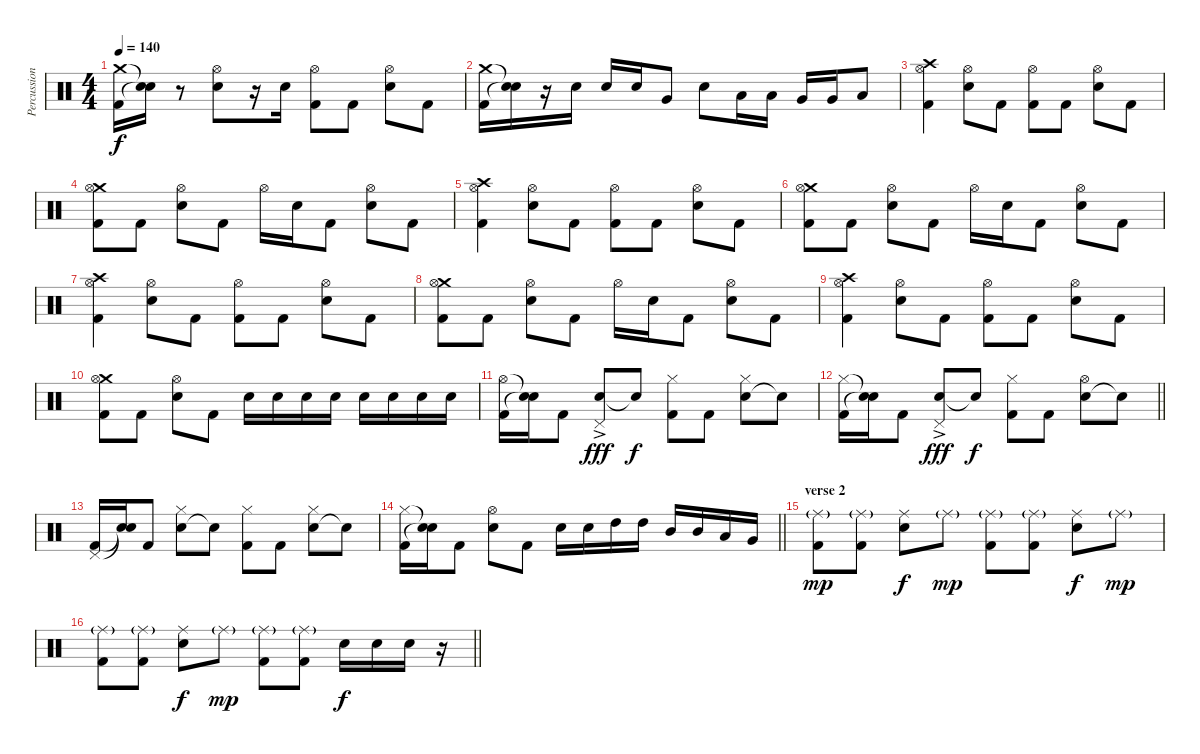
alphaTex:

\track ("Percussion" "Percussion") {instrument percussion}
\staff {score}
\articulation defaults
\ts (4 4)
\tempo 140
\clef neutral
\ks c
("Crash medium (hit)" "Kick (hit) 2").16{dy f} ("Snare (hit)"{t} "Snare (hit)"{t}).16 r.8 ("Electric Snare (hit)" "Hi-Hat (open)").8 r.16 "Electric Snare (hit)".16 ("Kick (hit) 2" "Hi-Hat (open)").8 "Kick (hit) 2".8 ("Electric Snare (hit)" "Hi-Hat (open)").8 "Kick (hit) 2".8 |
("Crash medium (hit)" "Kick (hit) 2").16 ("Snare (hit)"{t} "Snare (hit)"{t}).16 r.16 "Electric Snare (hit)".16 "Electric Snare (hit)".16 "Electric Snare (hit)".16 "Very Low Tom (hit)".8 "Electric Snare (hit)".8 "Low Tom (hit)".16 "Low Tom (hit)".16 "Very Low Tom (hit)".16 "Very Low Tom (hit)".16 "Low Floor Tom (hit)".8 |
("Crash high (hit)" "Kick (hit) 2" "Hi-Hat (open)").4 ("Electric Snare (hit)" "Hi-Hat (open)").8 "Kick (hit) 2".8 ("Kick (hit) 2" "Hi-Hat (open)").8 "Kick (hit) 2".8 ("Electric Snare (hit)" "Hi-Hat (open)").8 "Kick (hit) 2".8 |
("Crash medium (hit)" "Kick (hit) 2" "Hi-Hat (open)").8 "Kick (hit) 2".8 ("Electric Snare (hit)" "Hi-Hat (open)").8 "Kick (hit) 2".8 "Hi-Hat (open)".16 "Electric Snare (hit)".16 "Kick (hit) 2".8 ("Electric Snare (hit)" "Hi-Hat (open)").8 "Kick (hit) 2".8 |
("Crash high (hit)" "Kick (hit) 2" "Hi-Hat (open)").4 ("Electric Snare (hit)" "Hi-Hat (open)").8 "Kick (hit) 2".8 ("Kick (hit) 2" "Hi-Hat (open)").8 "Kick (hit) 2".8 ("Electric Snare (hit)" "Hi-Hat (open)").8 "Kick (hit) 2".8 |
("Crash medium (hit)" "Kick (hit) 2" "Hi-Hat (open)").8 "Kick (hit) 2".8 ("Electric Snare (hit)" "Hi-Hat (open)").8 "Kick (hit) 2".8 "Hi-Hat (open)".16 "Electric Snare (hit)".16 "Kick (hit) 2".8 ("Electric Snare (hit)" "Hi-Hat (open)").8 "Kick (hit) 2".8 |
("Crash high (hit)" "Kick (hit) 2" "Hi-Hat (open)").4 ("Electric Snare (hit)" "Hi-Hat (open)").8 "Kick (hit) 2".8 ("Kick (hit) 2" "Hi-Hat (open)").8 "Kick (hit) 2".8 ("Electric Snare (hit)" "Hi-Hat (open)").8 "Kick (hit) 2".8 |
("Crash medium (hit)" "Kick (hit) 2" "Hi-Hat (open)").8 "Kick (hit) 2".8 ("Electric Snare (hit)" "Hi-Hat (open)").8 "Kick (hit) 2".8 "Hi-Hat (open)".16 "Electric Snare (hit)".16 "Kick (hit) 2".8 ("Electric Snare (hit)" "Hi-Hat (open)").8 "Kick (hit) 2".8 |
("Crash high (hit)" "Kick (hit) 2" "Hi-Hat (open)").4 ("Electric Snare (hit)" "Hi-Hat (open)").8 "Kick (hit) 2".8 ("Kick (hit) 2" "Hi-Hat (open)").8 "Kick (hit) 2".8 ("Electric Snare (hit)" "Hi-Hat (open)").8 "Kick (hit) 2".8 |
("Crash medium (hit)" "Kick (hit) 2" "Hi-Hat (open)").8 "Kick (hit) 2".8 ("Electric Snare (hit)" "Hi-Hat (open)").8 "Kick (hit) 2".8 "Electric Snare (hit)".16 "Electric Snare (hit)".16 "Electric Snare (hit)".16 "Electric Snare (hit)".16 "Electric Snare (hit)".16 "Electric Snare (hit)".16 "Electric Snare (hit)".16 "Electric Snare (hit)".16 |
("Kick (hit) 2" "Hi-Hat (open)").16 ("Snare (hit)"{t} "Snare (hit)"{t}).16 "Kick (hit) 2".8 ("Electric Snare (hit)" "Pedal Hi-Hat (hit)"{ac}).8{dy fff} "Snare (hit)"{t}.8{dy f} ("Kick (hit) 2" "Hi-Hat (closed)").8 "Kick (hit) 2".8 ("Electric Snare (hit)" "Hi-Hat (closed)").8 "Snare (hit)"{t}.8 |
\barLineRight lightlight
("Kick (hit) 2" "Hi-Hat (closed)").16 ("Snare (hit)"{t} "Snare (hit)"{t}).16 "Kick (hit) 2".8 ("Electric Snare (hit)" "Pedal Hi-Hat (hit)"{ac}).8{dy fff} "Snare (hit)"{t}.8{dy f} ("Kick (hit) 2" "Hi-Hat (closed)").8 "Kick (hit) 2".8 ("Electric Snare (hit)" "Hi-Hat (open)").8 "Snare (hit)"{t}.8 |
("Kick (hit) 2" "Pedal Hi-Hat (hit)").16 ("Snare (hit)"{t} "Snare (hit)"{t}).16 "Kick (hit) 2".8 ("Electric Snare (hit)" "Hi-Hat (closed)").8 "Snare (hit)"{t}.8 ("Kick (hit) 2" "Hi-Hat (closed)").8 "Kick (hit) 2".8 ("Electric Snare (hit)" "Hi-Hat (closed)").8 "Snare (hit)"{t}.8 |
\barLineRight lightlight
("Kick (hit) 2" "Hi-Hat (closed)").16 ("Snare (hit)"{t} "Snare (hit)"{t}).16 "Kick (hit) 2".8 ("Electric Snare (hit)" "Hi-Hat (open)").8 "Kick (hit) 2".8 "Electric Snare (hit)".16 "Electric Snare (hit)".16 "High Tom (hit)".16 "High Tom (hit)".16 "Mid Tom (hit)".16 "Mid Tom (hit)".16 "Low Tom (hit)".16 "Very Low Tom (hit)".16 |
\section ("" "verse 2")
("Kick (hit) 2" "Ride (middle)"{g}).8{dy mp} ("Kick (hit) 2" "Ride (middle)"{g}).8 ("Electric Snare (hit)" "Ride (middle)").8{dy f} "Ride (middle)"{g}.8{dy mp} ("Kick (hit) 2" "Ride (middle)"{g}).8 ("Kick (hit) 2" "Ride (middle)"{g}).8 ("Electric Snare (hit)" "Ride (middle)").8{dy f} "Ride (middle)"{g}.8{dy mp} |
\barLineRight lightlight
("Kick (hit) 2" "Ride (middle)"{g}).8 ("Kick (hit) 2" "Ride (middle)"{g}).8 ("Electric Snare (hit)" "Ride (middle)").8{dy f} "Ride (middle)"{g}.8{dy mp} ("Kick (hit) 2" "Ride (middle)"{g}).8 ("Kick (hit) 2" "Ride (middle)"{g}).8 "Electric Snare (hit)".16{dy f} "Electric Snare (hit)".16 "Electric Snare (hit)".16 r.16
